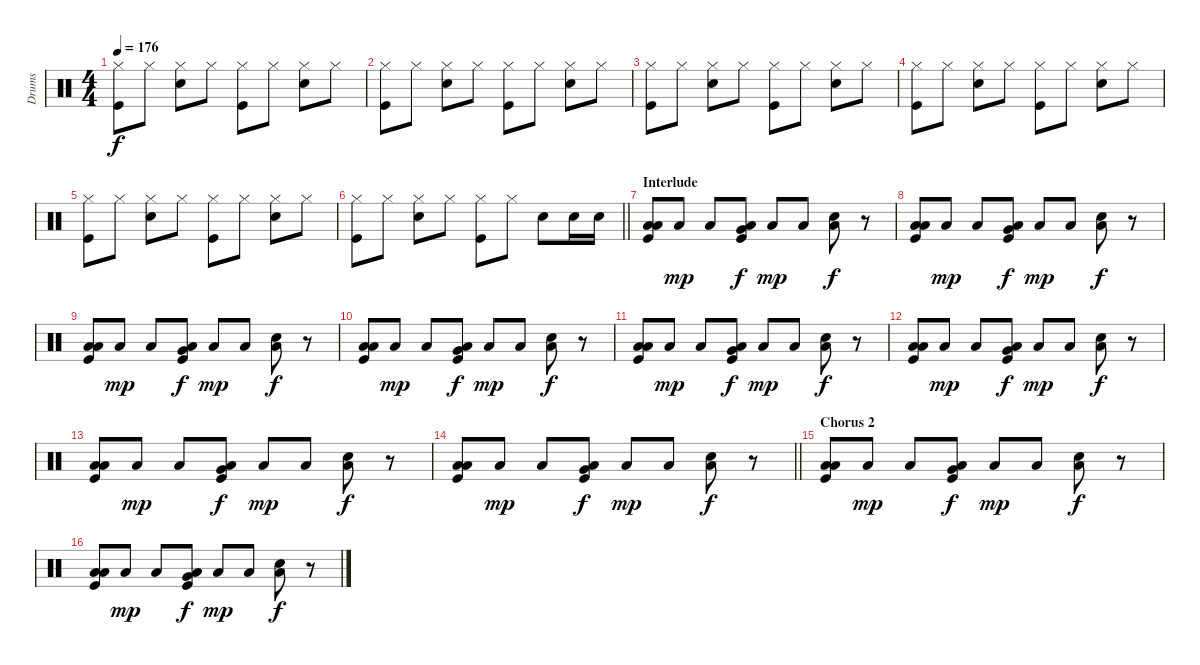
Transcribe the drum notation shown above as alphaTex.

\track ("Drums" "Drums") {instrument percussion}
\staff {score}
\articulation defaults
\ts (4 4)
\tempo 176
\clef neutral
\ks c
("Hi-Hat (closed)" "Kick (hit)").8{dy f} "Hi-Hat (closed)".8 ("Hi-Hat (closed)" "Electric Snare (hit)").8 "Hi-Hat (closed)".8 ("Hi-Hat (closed)" "Kick (hit)").8 "Hi-Hat (closed)".8 ("Hi-Hat (closed)" "Electric Snare (hit)").8 "Hi-Hat (closed)".8 |
("Hi-Hat (closed)" "Kick (hit)").8 "Hi-Hat (closed)".8 ("Hi-Hat (closed)" "Electric Snare (hit)").8 "Hi-Hat (closed)".8 ("Hi-Hat (closed)" "Kick (hit)").8 "Hi-Hat (closed)".8 ("Hi-Hat (closed)" "Electric Snare (hit)").8 "Hi-Hat (closed)".8 |
("Hi-Hat (closed)" "Kick (hit)").8 "Hi-Hat (closed)".8 ("Hi-Hat (closed)" "Electric Snare (hit)").8 "Hi-Hat (closed)".8 ("Hi-Hat (closed)" "Kick (hit)").8 "Hi-Hat (closed)".8 ("Hi-Hat (closed)" "Electric Snare (hit)").8 "Hi-Hat (closed)".8 |
("Hi-Hat (closed)" "Kick (hit)").8 "Hi-Hat (closed)".8 ("Hi-Hat (closed)" "Electric Snare (hit)").8 "Hi-Hat (closed)".8 ("Hi-Hat (closed)" "Kick (hit)").8 "Hi-Hat (closed)".8 ("Hi-Hat (closed)" "Electric Snare (hit)").8 "Hi-Hat (closed)".8 |
("Hi-Hat (closed)" "Kick (hit)").8 "Hi-Hat (closed)".8 ("Hi-Hat (closed)" "Electric Snare (hit)").8 "Hi-Hat (closed)".8 ("Hi-Hat (closed)" "Kick (hit)").8 "Hi-Hat (closed)".8 ("Hi-Hat (closed)" "Electric Snare (hit)").8 "Hi-Hat (closed)".8 |
\barLineRight lightlight
("Hi-Hat (closed)" "Kick (hit)").8 "Hi-Hat (closed)".8 ("Hi-Hat (closed)" "Electric Snare (hit)").8 "Hi-Hat (closed)".8 ("Hi-Hat (closed)" "Kick (hit)").8 "Hi-Hat (closed)".8 "Electric Snare (hit)".8 "Electric Snare (hit)".16 "Electric Snare (hit)".16 |
\section ("" "Interlude")
("Low Tom (hit)" "Low Floor Tom (hit)" "Kick (hit)").8 "Low Floor Tom (hit)".8{dy mp} "Low Floor Tom (hit)".8 ("Very Low Tom (hit)" "Low Floor Tom (hit)" "Kick (hit)").8{dy f} "Low Floor Tom (hit)".8{dy mp} "Low Floor Tom (hit)".8 ("Electric Snare (hit)" "Low Floor Tom (hit)").8{dy f} r.8 |
("Low Tom (hit)" "Low Floor Tom (hit)" "Kick (hit)").8 "Low Floor Tom (hit)".8{dy mp} "Low Floor Tom (hit)".8 ("Very Low Tom (hit)" "Low Floor Tom (hit)" "Kick (hit)").8{dy f} "Low Floor Tom (hit)".8{dy mp} "Low Floor Tom (hit)".8 ("Electric Snare (hit)" "Low Floor Tom (hit)").8{dy f} r.8 |
("Low Tom (hit)" "Low Floor Tom (hit)" "Kick (hit)").8 "Low Floor Tom (hit)".8{dy mp} "Low Floor Tom (hit)".8 ("Very Low Tom (hit)" "Low Floor Tom (hit)" "Kick (hit)").8{dy f} "Low Floor Tom (hit)".8{dy mp} "Low Floor Tom (hit)".8 ("Electric Snare (hit)" "Low Floor Tom (hit)").8{dy f} r.8 |
("Low Tom (hit)" "Low Floor Tom (hit)" "Kick (hit)").8 "Low Floor Tom (hit)".8{dy mp} "Low Floor Tom (hit)".8 ("Very Low Tom (hit)" "Low Floor Tom (hit)" "Kick (hit)").8{dy f} "Low Floor Tom (hit)".8{dy mp} "Low Floor Tom (hit)".8 ("Electric Snare (hit)" "Low Floor Tom (hit)").8{dy f} r.8 |
("Low Tom (hit)" "Low Floor Tom (hit)" "Kick (hit)").8 "Low Floor Tom (hit)".8{dy mp} "Low Floor Tom (hit)".8 ("Very Low Tom (hit)" "Low Floor Tom (hit)" "Kick (hit)").8{dy f} "Low Floor Tom (hit)".8{dy mp} "Low Floor Tom (hit)".8 ("Electric Snare (hit)" "Low Floor Tom (hit)").8{dy f} r.8 |
("Low Tom (hit)" "Low Floor Tom (hit)" "Kick (hit)").8 "Low Floor Tom (hit)".8{dy mp} "Low Floor Tom (hit)".8 ("Very Low Tom (hit)" "Low Floor Tom (hit)" "Kick (hit)").8{dy f} "Low Floor Tom (hit)".8{dy mp} "Low Floor Tom (hit)".8 ("Electric Snare (hit)" "Low Floor Tom (hit)").8{dy f} r.8 |
("Low Tom (hit)" "Low Floor Tom (hit)" "Kick (hit)").8 "Low Floor Tom (hit)".8{dy mp} "Low Floor Tom (hit)".8 ("Very Low Tom (hit)" "Low Floor Tom (hit)" "Kick (hit)").8{dy f} "Low Floor Tom (hit)".8{dy mp} "Low Floor Tom (hit)".8 ("Electric Snare (hit)" "Low Floor Tom (hit)").8{dy f} r.8 |
\barLineRight lightlight
("Low Tom (hit)" "Low Floor Tom (hit)" "Kick (hit)").8 "Low Floor Tom (hit)".8{dy mp} "Low Floor Tom (hit)".8 ("Very Low Tom (hit)" "Low Floor Tom (hit)" "Kick (hit)").8{dy f} "Low Floor Tom (hit)".8{dy mp} "Low Floor Tom (hit)".8 ("Electric Snare (hit)" "Low Floor Tom (hit)").8{dy f} r.8 |
\section ("" "Chorus 2")
("Low Tom (hit)" "Low Floor Tom (hit)" "Kick (hit)").8 "Low Floor Tom (hit)".8{dy mp} "Low Floor Tom (hit)".8 ("Very Low Tom (hit)" "Low Floor Tom (hit)" "Kick (hit)").8{dy f} "Low Floor Tom (hit)".8{dy mp} "Low Floor Tom (hit)".8 ("Electric Snare (hit)" "Low Floor Tom (hit)").8{dy f} r.8 |
("Low Tom (hit)" "Low Floor Tom (hit)" "Kick (hit)").8 "Low Floor Tom (hit)".8{dy mp} "Low Floor Tom (hit)".8 ("Very Low Tom (hit)" "Low Floor Tom (hit)" "Kick (hit)").8{dy f} "Low Floor Tom (hit)".8{dy mp} "Low Floor Tom (hit)".8 ("Electric Snare (hit)" "Low Floor Tom (hit)").8{dy f} r.8
